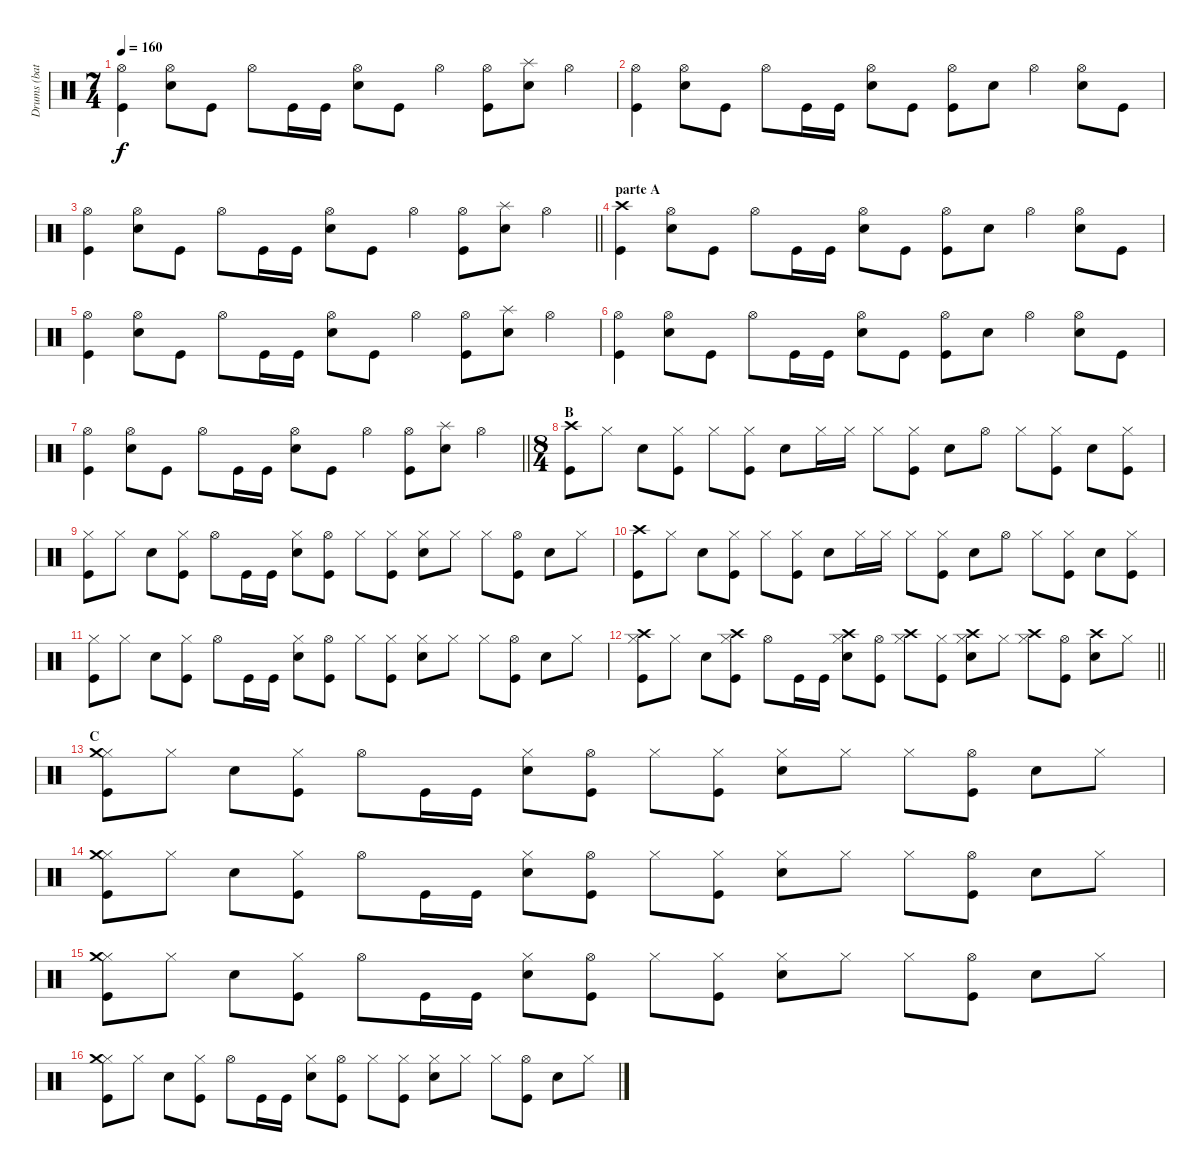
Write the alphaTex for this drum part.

\track ("Drums (bateria)" "Drums (bat") {instrument percussion}
\staff {score}
\articulation defaults
\ts (7 4)
\tempo 160
\clef neutral
\ks c
("Hi-Hat (open)" "Kick (hit)").4{dy f} ("Hi-Hat (open)" "Electric Snare (hit)").8 "Kick (hit)".8 "Hi-Hat (open)".8 "Kick (hit)".16 "Kick (hit)".16 ("Hi-Hat (open)" "Electric Snare (hit)").8 "Kick (hit)".8 "Hi-Hat (open)".4 ("Hi-Hat (open)" "Kick (hit)").8 ("Splash (hit)" "Electric Snare (hit)").8 "Hi-Hat (open)".4 |
("Hi-Hat (open)" "Kick (hit)").4 ("Hi-Hat (open)" "Electric Snare (hit)").8 "Kick (hit)".8 "Hi-Hat (open)".8 "Kick (hit)".16 "Kick (hit)".16 ("Hi-Hat (open)" "Electric Snare (hit)").8 "Kick (hit)".8 ("Hi-Hat (open)" "Kick (hit)").8 "Electric Snare (hit)".8 "Hi-Hat (open)".4 ("Hi-Hat (open)" "Electric Snare (hit)").8 "Kick (hit)".8 |
\barLineRight lightlight
("Hi-Hat (open)" "Kick (hit)").4 ("Hi-Hat (open)" "Electric Snare (hit)").8 "Kick (hit)".8 "Hi-Hat (open)".8 "Kick (hit)".16 "Kick (hit)".16 ("Hi-Hat (open)" "Electric Snare (hit)").8 "Kick (hit)".8 "Hi-Hat (open)".4 ("Hi-Hat (open)" "Kick (hit)").8 ("Splash (hit)" "Electric Snare (hit)").8 "Hi-Hat (open)".4 |
\section ("" "parte A")
("Crash high (hit)" "Kick (hit)").4 ("Hi-Hat (open)" "Electric Snare (hit)").8 "Kick (hit)".8 "Hi-Hat (open)".8 "Kick (hit)".16 "Kick (hit)".16 ("Hi-Hat (open)" "Electric Snare (hit)").8 "Kick (hit)".8 ("Hi-Hat (open)" "Kick (hit)").8 "Electric Snare (hit)".8 "Hi-Hat (open)".4 ("Hi-Hat (open)" "Electric Snare (hit)").8 "Kick (hit)".8 |
("Hi-Hat (open)" "Kick (hit)").4 ("Hi-Hat (open)" "Electric Snare (hit)").8 "Kick (hit)".8 "Hi-Hat (open)".8 "Kick (hit)".16 "Kick (hit)".16 ("Hi-Hat (open)" "Electric Snare (hit)").8 "Kick (hit)".8 "Hi-Hat (open)".4 ("Hi-Hat (open)" "Kick (hit)").8 ("Splash (hit)" "Electric Snare (hit)").8 "Hi-Hat (open)".4 |
("Hi-Hat (open)" "Kick (hit)").4 ("Hi-Hat (open)" "Electric Snare (hit)").8 "Kick (hit)".8 "Hi-Hat (open)".8 "Kick (hit)".16 "Kick (hit)".16 ("Hi-Hat (open)" "Electric Snare (hit)").8 "Kick (hit)".8 ("Hi-Hat (open)" "Kick (hit)").8 "Electric Snare (hit)".8 "Hi-Hat (open)".4 ("Hi-Hat (open)" "Electric Snare (hit)").8 "Kick (hit)".8 |
\barLineRight lightlight
("Hi-Hat (open)" "Kick (hit)").4 ("Hi-Hat (open)" "Electric Snare (hit)").8 "Kick (hit)".8 "Hi-Hat (open)".8 "Kick (hit)".16 "Kick (hit)".16 ("Hi-Hat (open)" "Electric Snare (hit)").8 "Kick (hit)".8 "Hi-Hat (open)".4 ("Hi-Hat (open)" "Kick (hit)").8 ("Splash (hit)" "Electric Snare (hit)").8 "Hi-Hat (open)".4 |
\ts (8 4)
\section ("" "B")
("Crash high (hit)" "Kick (hit)").8 "Hi-Hat (closed)".8 "Electric Snare (hit)".8 ("Hi-Hat (closed)" "Kick (hit)").8 "Hi-Hat (closed)".8 ("Hi-Hat (closed)" "Kick (hit)").8 "Electric Snare (hit)".8 "Hi-Hat (closed)".16 "Hi-Hat (closed)".16 "Hi-Hat (closed)".8 ("Hi-Hat (closed)" "Kick (hit)").8 "Electric Snare (hit)".8 "Hi-Hat (open)".8 "Hi-Hat (closed)".8 ("Hi-Hat (closed)" "Kick (hit)").8 "Electric Snare (hit)".8 ("Hi-Hat (closed)" "Kick (hit)").8 |
("Hi-Hat (closed)" "Kick (hit)").8 "Hi-Hat (closed)".8 "Electric Snare (hit)".8 ("Hi-Hat (closed)" "Kick (hit)").8 "Hi-Hat (open)".8 "Kick (hit)".16 "Kick (hit)".16 ("Hi-Hat (closed)" "Electric Snare (hit)").8 ("Hi-Hat (open)" "Kick (hit)").8 "Hi-Hat (closed)".8 ("Hi-Hat (closed)" "Kick (hit)").8 ("Hi-Hat (closed)" "Electric Snare (hit)").8 "Hi-Hat (closed)".8 "Hi-Hat (closed)".8 ("Hi-Hat (open)" "Kick (hit)").8 "Electric Snare (hit)".8 "Hi-Hat (closed)".8 |
("Crash high (hit)" "Kick (hit)").8 "Hi-Hat (closed)".8 "Electric Snare (hit)".8 ("Hi-Hat (closed)" "Kick (hit)").8 "Hi-Hat (closed)".8 ("Hi-Hat (closed)" "Kick (hit)").8 "Electric Snare (hit)".8 "Hi-Hat (closed)".16 "Hi-Hat (closed)".16 "Hi-Hat (closed)".8 ("Hi-Hat (closed)" "Kick (hit)").8 "Electric Snare (hit)".8 "Hi-Hat (open)".8 "Hi-Hat (closed)".8 ("Hi-Hat (closed)" "Kick (hit)").8 "Electric Snare (hit)".8 ("Hi-Hat (closed)" "Kick (hit)").8 |
("Hi-Hat (closed)" "Kick (hit)").8 "Hi-Hat (closed)".8 "Electric Snare (hit)".8 ("Hi-Hat (closed)" "Kick (hit)").8 "Hi-Hat (open)".8 "Kick (hit)".16 "Kick (hit)".16 ("Hi-Hat (closed)" "Electric Snare (hit)").8 ("Hi-Hat (open)" "Kick (hit)").8 "Hi-Hat (closed)".8 ("Hi-Hat (closed)" "Kick (hit)").8 ("Hi-Hat (closed)" "Electric Snare (hit)").8 "Hi-Hat (closed)".8 "Hi-Hat (closed)".8 ("Hi-Hat (open)" "Kick (hit)").8 "Electric Snare (hit)".8 "Hi-Hat (closed)".8 |
\barLineRight lightlight
("Hi-Hat (closed)" "Crash high (hit)" "Kick (hit)").8 "Hi-Hat (closed)".8 "Electric Snare (hit)".8 ("Hi-Hat (closed)" "Crash high (hit)" "Kick (hit)").8 "Hi-Hat (open)".8 "Kick (hit)".16 "Kick (hit)".16 ("Hi-Hat (closed)" "Crash high (hit)" "Electric Snare (hit)").8 ("Hi-Hat (open)" "Kick (hit)").8 ("Hi-Hat (closed)" "Crash high (hit)").8 ("Hi-Hat (closed)" "Kick (hit)").8 ("Hi-Hat (closed)" "Crash high (hit)" "Electric Snare (hit)").8 "Hi-Hat (closed)".8 ("Hi-Hat (closed)" "Crash high (hit)").8 ("Hi-Hat (open)" "Kick (hit)").8 ("Crash high (hit)" "Electric Snare (hit)").8 "Hi-Hat (closed)".8 |
\section ("" "C")
("Hi-Hat (closed)" "Crash medium (hit)" "Kick (hit)").8 "Hi-Hat (closed)".8 "Electric Snare (hit)".8 ("Hi-Hat (closed)" "Kick (hit)").8 "Hi-Hat (open)".8 "Kick (hit)".16 "Kick (hit)".16 ("Hi-Hat (closed)" "Electric Snare (hit)").8 ("Hi-Hat (open)" "Kick (hit)").8 "Hi-Hat (closed)".8 ("Hi-Hat (closed)" "Kick (hit)").8 ("Hi-Hat (closed)" "Electric Snare (hit)").8 "Hi-Hat (closed)".8 "Hi-Hat (closed)".8 ("Hi-Hat (open)" "Kick (hit)").8 "Electric Snare (hit)".8 "Hi-Hat (closed)".8 |
("Hi-Hat (closed)" "Crash medium (hit)" "Kick (hit)").8 "Hi-Hat (closed)".8 "Electric Snare (hit)".8 ("Hi-Hat (closed)" "Kick (hit)").8 "Hi-Hat (open)".8 "Kick (hit)".16 "Kick (hit)".16 ("Hi-Hat (closed)" "Electric Snare (hit)").8 ("Hi-Hat (open)" "Kick (hit)").8 "Hi-Hat (closed)".8 ("Hi-Hat (closed)" "Kick (hit)").8 ("Hi-Hat (closed)" "Electric Snare (hit)").8 "Hi-Hat (closed)".8 "Hi-Hat (closed)".8 ("Hi-Hat (open)" "Kick (hit)").8 "Electric Snare (hit)".8 "Hi-Hat (closed)".8 |
("Hi-Hat (closed)" "Crash medium (hit)" "Kick (hit)").8 "Hi-Hat (closed)".8 "Electric Snare (hit)".8 ("Hi-Hat (closed)" "Kick (hit)").8 "Hi-Hat (open)".8 "Kick (hit)".16 "Kick (hit)".16 ("Hi-Hat (closed)" "Electric Snare (hit)").8 ("Hi-Hat (open)" "Kick (hit)").8 "Hi-Hat (closed)".8 ("Hi-Hat (closed)" "Kick (hit)").8 ("Hi-Hat (closed)" "Electric Snare (hit)").8 "Hi-Hat (closed)".8 "Hi-Hat (closed)".8 ("Hi-Hat (open)" "Kick (hit)").8 "Electric Snare (hit)".8 "Hi-Hat (closed)".8 |
("Hi-Hat (closed)" "Crash medium (hit)" "Kick (hit)").8 "Hi-Hat (closed)".8 "Electric Snare (hit)".8 ("Hi-Hat (closed)" "Kick (hit)").8 "Hi-Hat (open)".8 "Kick (hit)".16 "Kick (hit)".16 ("Hi-Hat (closed)" "Electric Snare (hit)").8 ("Hi-Hat (open)" "Kick (hit)").8 "Hi-Hat (closed)".8 ("Hi-Hat (closed)" "Kick (hit)").8 ("Hi-Hat (closed)" "Electric Snare (hit)").8 "Hi-Hat (closed)".8 "Hi-Hat (closed)".8 ("Hi-Hat (open)" "Kick (hit)").8 "Electric Snare (hit)".8 "Hi-Hat (closed)".8
